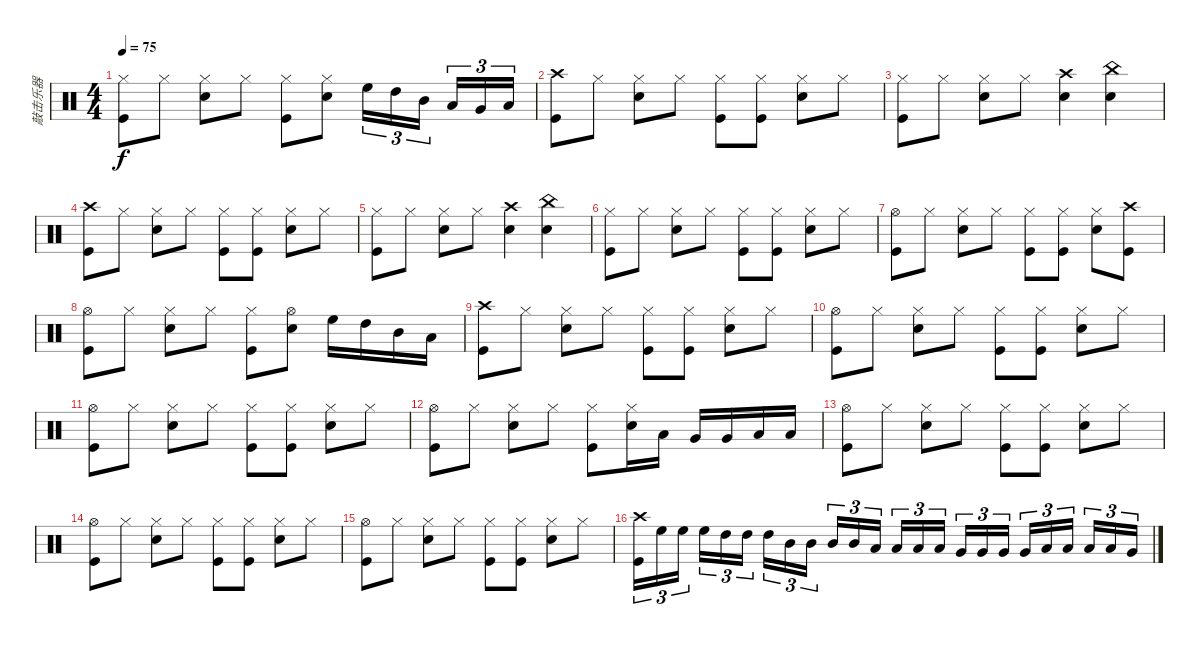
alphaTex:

\track ("敲击乐器" "敲击乐器") {instrument percussion}
\staff {score}
\articulation defaults
\ts (4 4)
\tempo 75
\clef neutral
\ks c
("Hi-Hat (closed)" "Kick (hit)").8{dy f} "Hi-Hat (closed)".8 ("Snare (hit) 2" "Hi-Hat (closed)").8 "Hi-Hat (closed)".8 ("Hi-Hat (closed)" "Kick (hit)").8 ("Snare (hit) 2" "Hi-Hat (closed)").8 "High Floor Tom (hit)".16{tu (3 2)} "High Tom (hit)".16{tu (3 2)} "Mid Tom (hit)".16{tu (3 2) beam splitsecondary} "Low Tom (hit)".16{tu (3 2)} "Very Low Tom (hit)".16{tu (3 2)} "Low Floor Tom (hit)".16{tu (3 2)} |
("Crash high (hit)" "Kick (hit)").8 "Hi-Hat (closed)".8 ("Snare (hit) 2" "Hi-Hat (closed)").8 "Hi-Hat (closed)".8 ("Kick (hit)" "Hi-Hat (closed)").8 ("Kick (hit)" "Hi-Hat (closed)").8 ("Snare (hit) 2" "Hi-Hat (closed)").8 "Hi-Hat (closed)".8 |
("Hi-Hat (closed)" "Kick (hit)").8 "Hi-Hat (closed)".8 ("Snare (hit) 2" "Hi-Hat (closed)").8 "Hi-Hat (closed)".8 ("Snare (hit) 2" "Crash high (hit)").4 ("Snare (hit) 2" "China (hit)").4 |
("Crash high (hit)" "Kick (hit)").8 "Hi-Hat (closed)".8 ("Snare (hit) 2" "Hi-Hat (closed)").8 "Hi-Hat (closed)".8 ("Kick (hit)" "Hi-Hat (closed)").8 ("Kick (hit)" "Hi-Hat (closed)").8 ("Snare (hit) 2" "Hi-Hat (closed)").8 "Hi-Hat (closed)".8 |
("Hi-Hat (closed)" "Kick (hit)").8 "Hi-Hat (closed)".8 ("Snare (hit) 2" "Hi-Hat (closed)").8 "Hi-Hat (closed)".8 ("Snare (hit) 2" "Crash high (hit)").4 ("Snare (hit) 2" "China (hit)").4 |
("Hi-Hat (closed)" "Kick (hit)").8 "Hi-Hat (closed)".8 ("Snare (hit) 2" "Hi-Hat (closed)").8 "Hi-Hat (closed)".8 ("Kick (hit)" "Hi-Hat (closed)").8 ("Kick (hit)" "Hi-Hat (closed)").8 ("Snare (hit) 2" "Hi-Hat (closed)").8 "Hi-Hat (closed)".8 |
("Kick (hit)" "Hi-Hat (open)").8 "Hi-Hat (closed)".8 ("Snare (hit) 2" "Hi-Hat (closed)").8 "Hi-Hat (closed)".8 ("Kick (hit)" "Hi-Hat (closed)").8 ("Kick (hit)" "Hi-Hat (closed)").8 ("Snare (hit) 2" "Hi-Hat (closed)").8 ("Crash high (hit)" "Kick (hit)").8 |
("Hi-Hat (open)" "Kick (hit)").8 "Hi-Hat (closed)".8 ("Snare (hit) 2" "Hi-Hat (closed)").8 "Hi-Hat (closed)".8 ("Kick (hit)" "Hi-Hat (closed)").8 ("Snare (hit) 2" "Hi-Hat (open)").8 "High Floor Tom (hit)".16 "High Tom (hit)".16 "Mid Tom (hit)".16 "Low Tom (hit)".16 |
("Crash high (hit)" "Kick (hit)").8 "Hi-Hat (closed)".8 ("Snare (hit) 2" "Hi-Hat (closed)").8 "Hi-Hat (closed)".8 ("Kick (hit)" "Hi-Hat (closed)").8 ("Kick (hit)" "Hi-Hat (closed)").8 ("Snare (hit) 2" "Hi-Hat (closed)").8 "Hi-Hat (closed)".8 |
("Kick (hit)" "Hi-Hat (open)").8 "Hi-Hat (closed)".8 ("Snare (hit) 2" "Hi-Hat (closed)").8 "Hi-Hat (closed)".8 ("Kick (hit)" "Hi-Hat (closed)").8 ("Kick (hit)" "Hi-Hat (closed)").8 ("Snare (hit) 2" "Hi-Hat (closed)").8 "Hi-Hat (closed)".8 |
("Hi-Hat (open)" "Kick (hit)").8 "Hi-Hat (closed)".8 ("Snare (hit) 2" "Hi-Hat (closed)").8 "Hi-Hat (closed)".8 ("Kick (hit)" "Hi-Hat (closed)").8 ("Kick (hit)" "Hi-Hat (closed)").8 ("Snare (hit) 2" "Hi-Hat (closed)").8 "Hi-Hat (closed)".8 |
("Hi-Hat (open)" "Kick (hit)").8 "Hi-Hat (closed)".8 ("Snare (hit) 2" "Hi-Hat (closed)").8 "Hi-Hat (closed)".8 ("Kick (hit)" "Hi-Hat (closed)").8 ("Snare (hit) 2" "Hi-Hat (closed)").16 "Low Tom (hit)".16 "Very Low Tom (hit)".16 "Very Low Tom (hit)".16 "Low Floor Tom (hit)".16 "Low Floor Tom (hit)".16 |
("Hi-Hat (open)" "Kick (hit)").8 "Hi-Hat (closed)".8 ("Snare (hit) 2" "Hi-Hat (closed)").8 "Hi-Hat (closed)".8 ("Kick (hit)" "Hi-Hat (closed)").8 ("Kick (hit)" "Hi-Hat (closed)").8 ("Snare (hit) 2" "Hi-Hat (closed)").8 "Hi-Hat (closed)".8 |
("Hi-Hat (open)" "Kick (hit)").8 "Hi-Hat (closed)".8 ("Snare (hit) 2" "Hi-Hat (closed)").8 "Hi-Hat (closed)".8 ("Kick (hit)" "Hi-Hat (closed)").8 ("Kick (hit)" "Hi-Hat (closed)").8 ("Snare (hit) 2" "Hi-Hat (closed)").8 "Hi-Hat (closed)".8 |
("Hi-Hat (open)" "Kick (hit)").8 "Hi-Hat (closed)".8 ("Snare (hit) 2" "Hi-Hat (closed)").8 "Hi-Hat (closed)".8 ("Kick (hit)" "Hi-Hat (closed)").8 ("Kick (hit)" "Hi-Hat (closed)").8 ("Snare (hit) 2" "Hi-Hat (closed)").8 "Hi-Hat (closed)".8 |
("Crash high (hit)" "Kick (hit)").16{tu (3 2)} "High Floor Tom (hit)".16{tu (3 2)} "High Floor Tom (hit)".16{tu (3 2) beam splitsecondary} "High Floor Tom (hit)".16{tu (3 2)} "High Tom (hit)".16{tu (3 2)} "High Tom (hit)".16{tu (3 2)} "High Tom (hit)".16{tu (3 2)} "Mid Tom (hit)".16{tu (3 2)} "Mid Tom (hit)".16{tu (3 2) beam splitsecondary} "Mid Tom (hit)".16{tu (3 2)} "Mid Tom (hit)".16{tu (3 2)} "Low Tom (hit)".16{tu (3 2)} "Low Tom (hit)".16{tu (3 2)} "Low Tom (hit)".16{tu (3 2)} "Low Tom (hit)".16{tu (3 2) beam splitsecondary} "Very Low Tom (hit)".16{tu (3 2)} "Very Low Tom (hit)".16{tu (3 2)} "Very Low Tom (hit)".16{tu (3 2)} "Very Low Tom (hit)".16{tu (3 2)} "Low Floor Tom (hit)".16{tu (3 2)} "Low Floor Tom (hit)".16{tu (3 2) beam splitsecondary} "Low Floor Tom (hit)".16{tu (3 2)} "Low Floor Tom (hit)".16{tu (3 2)} "Very Low Tom (hit)".16{tu (3 2)}
